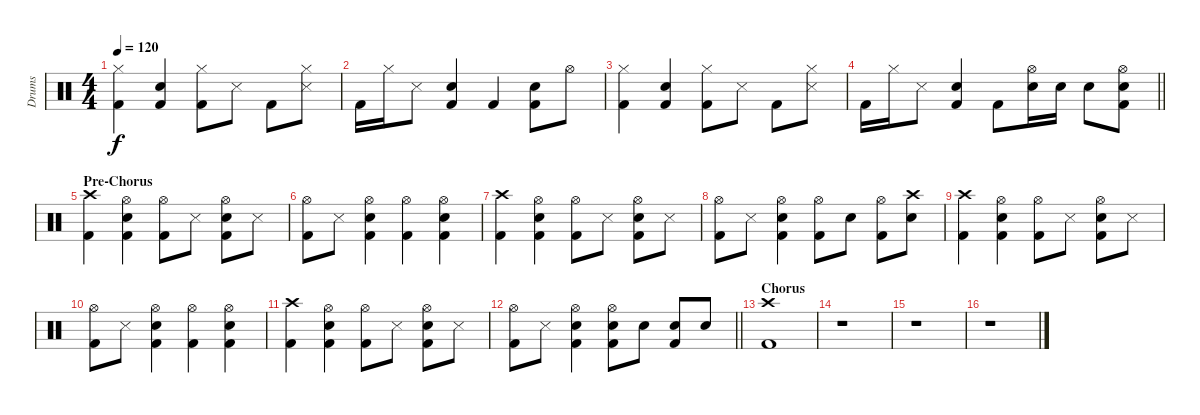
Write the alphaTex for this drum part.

\track ("Drums" "Drums") {instrument percussion}
\staff {score}
\articulation defaults
\ts (4 4)
\tempo 120
\clef neutral
\ks c
("Hi-Hat (closed)" "Kick (hit) 2").4{dy f} ("Snare (hit) 2" "Kick (hit) 2").4 ("Hi-Hat (closed)" "Kick (hit) 2").8 "Snare (side stick) 3".8 "Kick (hit) 2".8 ("Hi-Hat (closed)" "Snare (side stick) 3").8 |
"Kick (hit) 2".16 "Hi-Hat (closed)".16 "Snare (side stick) 3".8 ("Snare (hit) 2" "Kick (hit) 2").4 "Kick (hit) 2".4 ("Snare (hit) 2" "Kick (hit) 2").8 "Hi-Hat (open)".8 |
("Hi-Hat (closed)" "Kick (hit) 2").4 ("Snare (hit) 2" "Kick (hit) 2").4 ("Hi-Hat (closed)" "Kick (hit) 2").8 "Snare (side stick) 3".8 "Kick (hit) 2".8 ("Hi-Hat (closed)" "Snare (side stick) 3").8 |
\barLineRight lightlight "Kick (hit) 2".16 "Hi-Hat (closed)".16 "Snare (side stick) 3".8
("Snare (hit) 2" "Kick (hit) 2").4 "Kick (hit) 2".8 ("Hi-Hat (open)" "Snare (hit) 2").16 "Snare (hit) 2".16 "Snare (hit) 2".8 ("Hi-Hat (open)" "Snare (hit) 2" "Kick (hit) 2").8 |
\section ("" "Pre-Chorus")
("Crash high (hit)" "Kick (hit) 2").4 ("Hi-Hat (open)" "Snare (hit) 2" "Kick (hit) 2").4 ("Hi-Hat (open)" "Kick (hit) 2").8 "Snare (side stick) 3".8 ("Hi-Hat (open)" "Snare (hit) 2" "Kick (hit) 2").8 "Snare (side stick) 3".8 |
("Hi-Hat (open)" "Kick (hit) 2").8 "Snare (side stick) 3".8 ("Hi-Hat (open)" "Snare (hit) 2" "Kick (hit) 2").4 ("Hi-Hat (open)" "Kick (hit) 2").4 ("Hi-Hat (open)" "Snare (hit) 2" "Kick (hit) 2").4 |
("Crash high (hit)" "Kick (hit) 2").4 ("Hi-Hat (open)" "Snare (hit) 2" "Kick (hit) 2").4 ("Hi-Hat (open)" "Kick (hit) 2").8 "Snare (side stick) 3".8 ("Hi-Hat (open)" "Snare (hit) 2" "Kick (hit) 2").8 "Snare (side stick) 3".8 |
("Hi-Hat (open)" "Kick (hit) 2").8 "Snare (side stick) 3".8 ("Hi-Hat (open)" "Snare (hit) 2" "Kick (hit) 2").4 ("Hi-Hat (open)" "Kick (hit) 2").8 "Snare (hit) 2".8 ("Hi-Hat (open)" "Kick (hit) 2").8 ("Crash high (hit)" "Snare (hit) 2").8 |
("Crash high (hit)" "Kick (hit) 2").4 ("Hi-Hat (open)" "Snare (hit) 2" "Kick (hit) 2").4 ("Hi-Hat (open)" "Kick (hit) 2").8 "Snare (side stick) 3".8 ("Hi-Hat (open)" "Snare (hit) 2" "Kick (hit) 2").8 "Snare (side stick) 3".8 |
("Hi-Hat (open)" "Kick (hit) 2").8 "Snare (side stick) 3".8 ("Hi-Hat (open)" "Snare (hit) 2" "Kick (hit) 2").4 ("Hi-Hat (open)" "Kick (hit) 2").4 ("Hi-Hat (open)" "Snare (hit) 2" "Kick (hit) 2").4 |
("Crash high (hit)" "Kick (hit) 2").4 ("Hi-Hat (open)" "Snare (hit) 2" "Kick (hit) 2").4 ("Hi-Hat (open)" "Kick (hit) 2").8 "Snare (side stick) 3".8 ("Hi-Hat (open)" "Snare (hit) 2" "Kick (hit) 2").8 "Snare (side stick) 3".8 |
\barLineRight lightlight
("Hi-Hat (open)" "Kick (hit) 2").8 "Snare (side stick) 3".8 ("Hi-Hat (open)" "Snare (hit) 2" "Kick (hit) 2").4 ("Hi-Hat (open)" "Snare (hit) 2" "Kick (hit) 2").8 "Snare (hit) 2".8 ("Snare (hit) 2" "Kick (hit) 2").8 "Snare (hit) 2".8 |
\section ("" "Chorus")
("Crash high (hit)" "Kick (hit) 2").1 |
r.1 |
r.1 |
r.1
